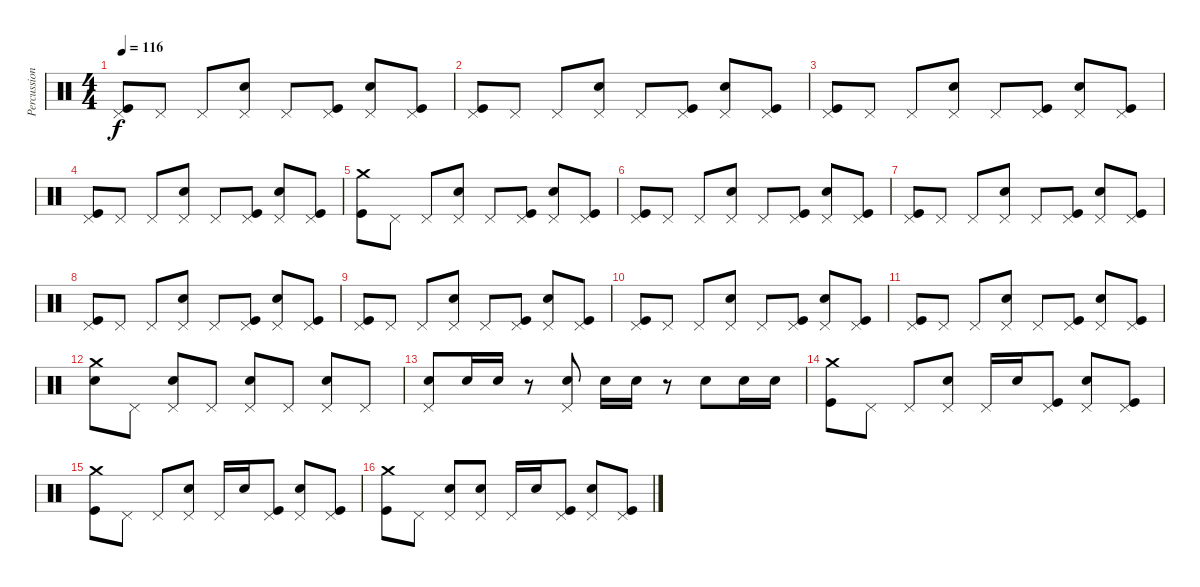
\track ("Percussions" "Percussion") {instrument percussion}
\staff {score}
\articulation defaults
\ts (4 4)
\tempo 116
\clef neutral
\ks c
("Pedal Hi-Hat (hit)" "Kick (hit)").8{dy f} "Pedal Hi-Hat (hit)".8 "Pedal Hi-Hat (hit)".8 ("Pedal Hi-Hat (hit)" "Snare (hit) 2").8 "Pedal Hi-Hat (hit)".8 ("Pedal Hi-Hat (hit)" "Kick (hit)").8 ("Pedal Hi-Hat (hit)" "Snare (hit) 2").8 ("Pedal Hi-Hat (hit)" "Kick (hit)").8 |
("Pedal Hi-Hat (hit)" "Kick (hit)").8 "Pedal Hi-Hat (hit)".8 "Pedal Hi-Hat (hit)".8 ("Pedal Hi-Hat (hit)" "Snare (hit) 2").8 "Pedal Hi-Hat (hit)".8 ("Pedal Hi-Hat (hit)" "Kick (hit)").8 ("Pedal Hi-Hat (hit)" "Snare (hit) 2").8 ("Pedal Hi-Hat (hit)" "Kick (hit)").8 |
("Pedal Hi-Hat (hit)" "Kick (hit)").8 "Pedal Hi-Hat (hit)".8 "Pedal Hi-Hat (hit)".8 ("Pedal Hi-Hat (hit)" "Snare (hit) 2").8 "Pedal Hi-Hat (hit)".8 ("Pedal Hi-Hat (hit)" "Kick (hit)").8 ("Pedal Hi-Hat (hit)" "Snare (hit) 2").8 ("Pedal Hi-Hat (hit)" "Kick (hit)").8 |
("Pedal Hi-Hat (hit)" "Kick (hit)").8 "Pedal Hi-Hat (hit)".8 "Pedal Hi-Hat (hit)".8 ("Pedal Hi-Hat (hit)" "Snare (hit) 2").8 "Pedal Hi-Hat (hit)".8 ("Pedal Hi-Hat (hit)" "Kick (hit)").8 ("Pedal Hi-Hat (hit)" "Snare (hit) 2").8 ("Pedal Hi-Hat (hit)" "Kick (hit)").8 |
("Crash medium (hit)" "Kick (hit)").8 "Pedal Hi-Hat (hit)".8 "Pedal Hi-Hat (hit)".8 ("Pedal Hi-Hat (hit)" "Snare (hit) 2").8 "Pedal Hi-Hat (hit)".8 ("Pedal Hi-Hat (hit)" "Kick (hit)").8 ("Pedal Hi-Hat (hit)" "Snare (hit) 2").8 ("Pedal Hi-Hat (hit)" "Kick (hit)").8 |
("Pedal Hi-Hat (hit)" "Kick (hit)").8 "Pedal Hi-Hat (hit)".8 "Pedal Hi-Hat (hit)".8 ("Pedal Hi-Hat (hit)" "Snare (hit) 2").8 "Pedal Hi-Hat (hit)".8 ("Pedal Hi-Hat (hit)" "Kick (hit)").8 ("Pedal Hi-Hat (hit)" "Snare (hit) 2").8 ("Pedal Hi-Hat (hit)" "Kick (hit)").8 |
("Pedal Hi-Hat (hit)" "Kick (hit)").8 "Pedal Hi-Hat (hit)".8 "Pedal Hi-Hat (hit)".8 ("Pedal Hi-Hat (hit)" "Snare (hit) 2").8 "Pedal Hi-Hat (hit)".8 ("Pedal Hi-Hat (hit)" "Kick (hit)").8 ("Pedal Hi-Hat (hit)" "Snare (hit) 2").8 ("Pedal Hi-Hat (hit)" "Kick (hit)").8 |
("Pedal Hi-Hat (hit)" "Kick (hit)").8 "Pedal Hi-Hat (hit)".8 "Pedal Hi-Hat (hit)".8 ("Pedal Hi-Hat (hit)" "Snare (hit) 2").8 "Pedal Hi-Hat (hit)".8 ("Pedal Hi-Hat (hit)" "Kick (hit)").8 ("Pedal Hi-Hat (hit)" "Snare (hit) 2").8 ("Pedal Hi-Hat (hit)" "Kick (hit)").8 |
("Pedal Hi-Hat (hit)" "Kick (hit)").8 "Pedal Hi-Hat (hit)".8 "Pedal Hi-Hat (hit)".8 ("Pedal Hi-Hat (hit)" "Snare (hit) 2").8 "Pedal Hi-Hat (hit)".8 ("Pedal Hi-Hat (hit)" "Kick (hit)").8 ("Pedal Hi-Hat (hit)" "Snare (hit) 2").8 ("Pedal Hi-Hat (hit)" "Kick (hit)").8 |
("Pedal Hi-Hat (hit)" "Kick (hit)").8 "Pedal Hi-Hat (hit)".8 "Pedal Hi-Hat (hit)".8 ("Pedal Hi-Hat (hit)" "Snare (hit) 2").8 "Pedal Hi-Hat (hit)".8 ("Pedal Hi-Hat (hit)" "Kick (hit)").8 ("Pedal Hi-Hat (hit)" "Snare (hit) 2").8 ("Pedal Hi-Hat (hit)" "Kick (hit)").8 |
("Pedal Hi-Hat (hit)" "Kick (hit)").8 "Pedal Hi-Hat (hit)".8 "Pedal Hi-Hat (hit)".8 ("Pedal Hi-Hat (hit)" "Snare (hit) 2").8 "Pedal Hi-Hat (hit)".8 ("Pedal Hi-Hat (hit)" "Kick (hit)").8 ("Pedal Hi-Hat (hit)" "Snare (hit) 2").8 ("Pedal Hi-Hat (hit)" "Kick (hit)").8 |
("Crash medium (hit)" "Snare (hit) 2").8 "Pedal Hi-Hat (hit)".8 ("Pedal Hi-Hat (hit)" "Snare (hit) 2").8 "Pedal Hi-Hat (hit)".8 ("Pedal Hi-Hat (hit)" "Snare (hit) 2").8 "Pedal Hi-Hat (hit)".8 ("Pedal Hi-Hat (hit)" "Snare (hit) 2").8 "Pedal Hi-Hat (hit)".8 |
("Pedal Hi-Hat (hit)" "Snare (hit) 2").8 "Snare (hit) 2".16 "Snare (hit) 2".16 r.8 ("Pedal Hi-Hat (hit)" "Snare (hit) 2").8 "Snare (hit) 2".16 "Snare (hit) 2".16 r.8 "Snare (hit) 2".8 "Snare (hit) 2".16 "Snare (hit) 2".16 |
("Crash medium (hit)" "Kick (hit)").8 "Pedal Hi-Hat (hit)".8 "Pedal Hi-Hat (hit)".8 ("Pedal Hi-Hat (hit)" "Snare (hit) 2").8 "Pedal Hi-Hat (hit)".16 "Snare (hit) 2".16 ("Pedal Hi-Hat (hit)" "Kick (hit)").8 ("Pedal Hi-Hat (hit)" "Snare (hit) 2").8 ("Pedal Hi-Hat (hit)" "Kick (hit)").8 |
("Crash medium (hit)" "Kick (hit)").8 "Pedal Hi-Hat (hit)".8 "Pedal Hi-Hat (hit)".8 ("Pedal Hi-Hat (hit)" "Snare (hit) 2").8 "Pedal Hi-Hat (hit)".16 "Snare (hit) 2".16 ("Pedal Hi-Hat (hit)" "Kick (hit)").8 ("Pedal Hi-Hat (hit)" "Snare (hit) 2").8 ("Pedal Hi-Hat (hit)" "Kick (hit)").8 |
("Crash medium (hit)" "Kick (hit)").8 "Pedal Hi-Hat (hit)".8 ("Pedal Hi-Hat (hit)" "Snare (hit) 2").8 ("Pedal Hi-Hat (hit)" "Snare (hit) 2").8 "Pedal Hi-Hat (hit)".16 "Snare (hit) 2".16 ("Pedal Hi-Hat (hit)" "Kick (hit)").8 ("Pedal Hi-Hat (hit)" "Snare (hit) 2").8 ("Pedal Hi-Hat (hit)" "Kick (hit)").8
